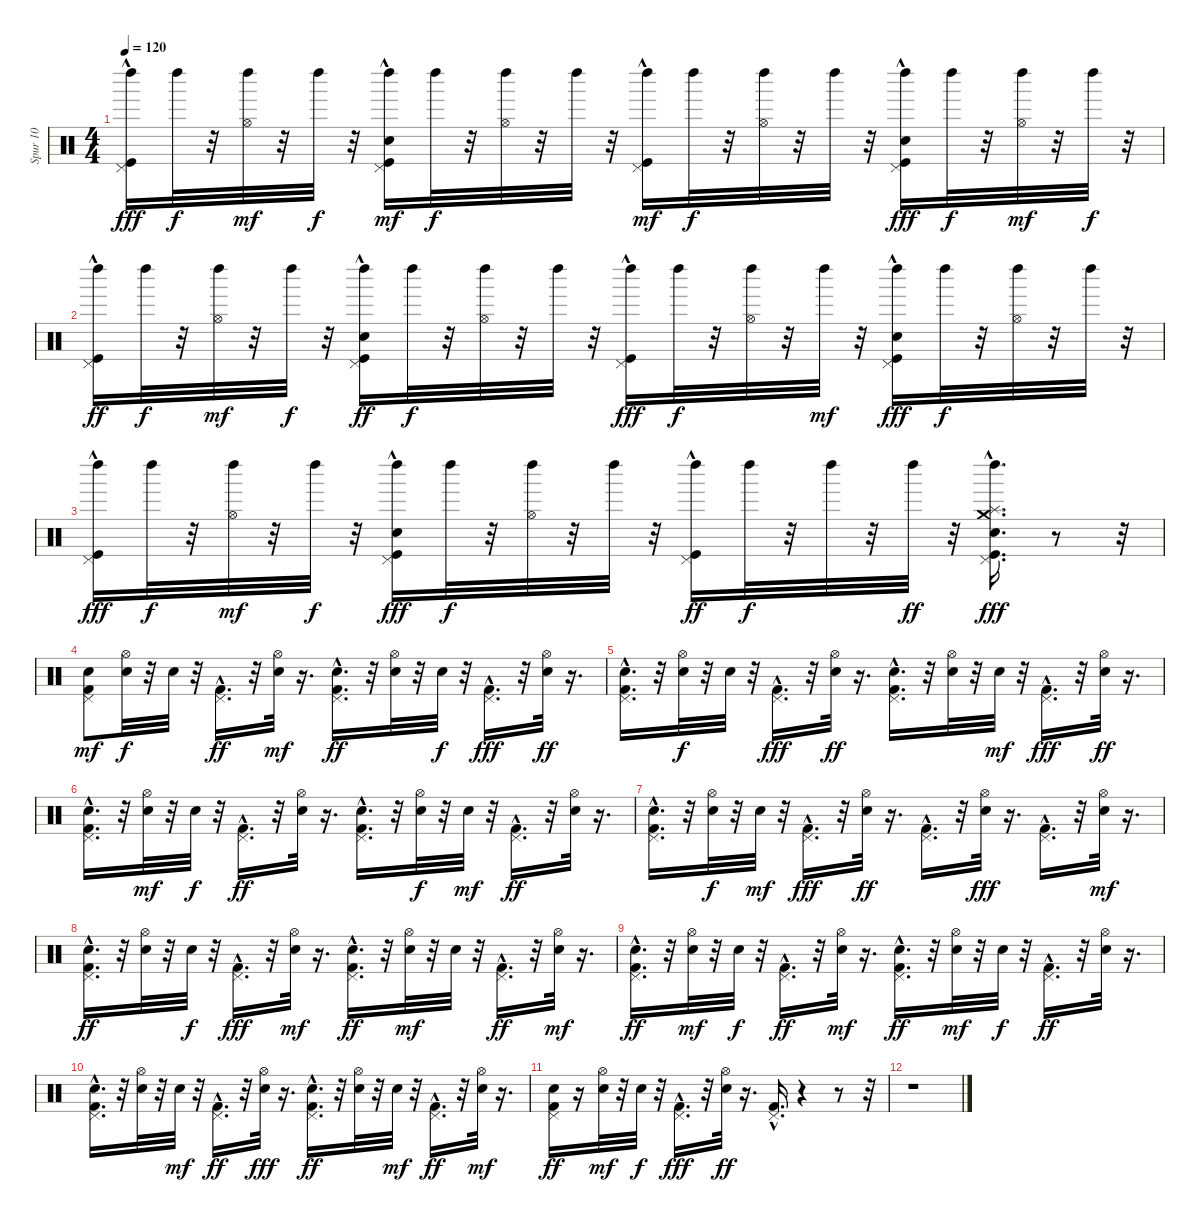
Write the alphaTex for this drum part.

\track ("Spur 10" "Spur 10") {instrument percussion}
\staff {score}
\articulation defaults
\ts (4 4)
\tempo 120
\clef neutral
\ks c
("Kick (hit)"{hac} "Pedal Hi-Hat (hit)"{hac} "Left Maraca (hit)").16{dy fff} "Left Maraca (hit)".32{dy f} r.32 ("Hi-Hat (open)" "Left Maraca (hit)").32{dy mf} r.32 "Left Maraca (hit)".32{dy f} r.32 ("Snare (hit) 2" "Kick (hit)"{hac} "Pedal Hi-Hat (hit)"{hac} "Left Maraca (hit)").16{dy mf} "Left Maraca (hit)".32{dy f} r.32 ("Hi-Hat (open)" "Left Maraca (hit)").32 r.32 "Left Maraca (hit)".32 r.32 ("Kick (hit)"{hac} "Pedal Hi-Hat (hit)"{hac} "Left Maraca (hit)").16{dy mf} "Left Maraca (hit)".32{dy f} r.32 ("Hi-Hat (open)" "Left Maraca (hit)").32 r.32 "Left Maraca (hit)".32 r.32 ("Kick (hit)"{hac} "Snare (hit) 2" "Pedal Hi-Hat (hit)" "Left Maraca (hit)").16{dy fff} "Left Maraca (hit)".32{dy f} r.32 ("Hi-Hat (open)" "Left Maraca (hit)").32{dy mf} r.32 "Left Maraca (hit)".32{dy f} r.32 |
("Kick (hit)"{hac} "Pedal Hi-Hat (hit)"{hac} "Left Maraca (hit)").16{dy ff} "Left Maraca (hit)".32{dy f} r.32 ("Hi-Hat (open)" "Left Maraca (hit)").32{dy mf} r.32 "Left Maraca (hit)".32{dy f} r.32 ("Kick (hit)"{hac} "Snare (hit) 2" "Pedal Hi-Hat (hit)"{hac} "Left Maraca (hit)").16{dy ff} "Left Maraca (hit)".32{dy f} r.32 ("Hi-Hat (open)" "Left Maraca (hit)").32 r.32 "Left Maraca (hit)".32 r.32 ("Kick (hit)"{hac} "Pedal Hi-Hat (hit)"{hac} "Left Maraca (hit)").16{dy fff} "Left Maraca (hit)".32{dy f} r.32 ("Hi-Hat (open)" "Left Maraca (hit)").32 r.32 "Left Maraca (hit)".32{dy mf} r.32 ("Snare (hit) 2" "Kick (hit)"{hac} "Pedal Hi-Hat (hit)"{hac} "Left Maraca (hit)").16{dy fff} "Left Maraca (hit)".32{dy f} r.32 ("Hi-Hat (open)" "Left Maraca (hit)").32 r.32 "Left Maraca (hit)".32 r.32 |
("Kick (hit)" "Pedal Hi-Hat (hit)"{hac} "Left Maraca (hit)").16{dy fff} "Left Maraca (hit)".32{dy f} r.32 ("Hi-Hat (open)" "Left Maraca (hit)").32{dy mf} r.32 "Left Maraca (hit)".32{dy f} r.32 ("Snare (hit) 2" "Kick (hit)"{hac} "Pedal Hi-Hat (hit)"{hac} "Left Maraca (hit)").16{dy fff} "Left Maraca (hit)".32{dy f} r.32 ("Hi-Hat (open)" "Left Maraca (hit)").32 r.32 "Left Maraca (hit)".32 r.32 ("Kick (hit)" "Pedal Hi-Hat (hit)"{hac} "Left Maraca (hit)").16{dy ff} "Left Maraca (hit)".32{dy f} r.32 "Left Maraca (hit)".32 r.32 "Left Maraca (hit)".32{dy ff} r.32 ("Kick (hit)"{hac} "Snare (hit) 2" "Pedal Hi-Hat (hit)"{hac} "Left Maraca (hit)" "Splash (hit)" "Crash medium (hit)").16{d dy fff} r.8 r.32 |
("Kick (hit) 2" "Electric Snare (hit)" "Pedal Hi-Hat (hit)").8{dy mf} ("Electric Snare (hit)" "Hi-Hat (open)").32{dy f} r.32 "Electric Snare (hit)".32 r.32 ("Kick (hit) 2"{hac} "Pedal Hi-Hat (hit)"{hac}).16{d dy ff} r.32 ("Electric Snare (hit)" "Hi-Hat (open)").32{dy mf} r.16{d} ("Kick (hit) 2" "Electric Snare (hit)" "Pedal Hi-Hat (hit)"{hac}).16{d dy ff} r.32 ("Electric Snare (hit)" "Hi-Hat (open)").32 r.32 "Electric Snare (hit)".32{dy f} r.32 ("Kick (hit) 2"{hac} "Pedal Hi-Hat (hit)"{hac}).16{d dy fff} r.32 ("Electric Snare (hit)" "Hi-Hat (open)").32{dy ff} r.16{d} |
("Kick (hit) 2" "Electric Snare (hit)" "Pedal Hi-Hat (hit)"{hac}).16{d} r.32 ("Electric Snare (hit)" "Hi-Hat (open)").32{dy f} r.32 "Electric Snare (hit)".32 r.32 ("Kick (hit) 2"{hac} "Pedal Hi-Hat (hit)"{hac}).16{d dy fff} r.32 ("Electric Snare (hit)" "Hi-Hat (open)").32{dy ff} r.16{d} ("Electric Snare (hit)" "Kick (hit) 2" "Pedal Hi-Hat (hit)"{hac}).16{d} r.32 ("Electric Snare (hit)" "Hi-Hat (open)").32 r.32 "Electric Snare (hit)".32{dy mf} r.32 ("Kick (hit) 2"{hac} "Pedal Hi-Hat (hit)"{hac}).16{d dy fff} r.32 ("Electric Snare (hit)" "Hi-Hat (open)").32{dy ff} r.16{d} |
("Kick (hit) 2" "Electric Snare (hit)" "Pedal Hi-Hat (hit)"{hac}).16{d} r.32 ("Electric Snare (hit)" "Hi-Hat (open)").32{dy mf} r.32 "Electric Snare (hit)".32{dy f} r.32 ("Kick (hit) 2"{hac} "Pedal Hi-Hat (hit)"{hac}).16{d dy ff} r.32 ("Electric Snare (hit)" "Hi-Hat (open)").32 r.16{d} ("Kick (hit) 2" "Electric Snare (hit)" "Pedal Hi-Hat (hit)"{hac}).16{d} r.32 ("Electric Snare (hit)" "Hi-Hat (open)").32{dy f} r.32 "Electric Snare (hit)".32{dy mf} r.32 ("Kick (hit) 2"{hac} "Pedal Hi-Hat (hit)"{hac}).16{d dy ff} r.32 ("Electric Snare (hit)" "Hi-Hat (open)").32 r.16{d} |
("Kick (hit) 2" "Electric Snare (hit)" "Pedal Hi-Hat (hit)"{hac}).16{d} r.32 ("Electric Snare (hit)" "Hi-Hat (open)").32{dy f} r.32 "Electric Snare (hit)".32{dy mf} r.32 ("Kick (hit) 2"{hac} "Pedal Hi-Hat (hit)"{hac}).16{d dy fff} r.32 ("Electric Snare (hit)" "Hi-Hat (open)").32{dy ff} r.16{d} ("Kick (hit) 2" "Pedal Hi-Hat (hit)"{hac}).16{d} r.32 ("Electric Snare (hit)" "Hi-Hat (open)").32{dy fff} r.16{d} ("Kick (hit) 2" "Pedal Hi-Hat (hit)"{hac}).16{d} r.32 ("Electric Snare (hit)" "Hi-Hat (open)").32{dy mf} r.16{d} |
("Kick (hit) 2" "Electric Snare (hit)" "Pedal Hi-Hat (hit)"{hac}).16{d dy ff} r.32 ("Electric Snare (hit)" "Hi-Hat (open)").32 r.32 "Electric Snare (hit)".32{dy f} r.32 ("Kick (hit) 2"{hac} "Pedal Hi-Hat (hit)").16{d dy fff} r.32 ("Electric Snare (hit)" "Hi-Hat (open)").32{dy mf} r.16{d} ("Kick (hit) 2" "Electric Snare (hit)" "Pedal Hi-Hat (hit)"{hac}).16{d dy ff} r.32 ("Electric Snare (hit)" "Hi-Hat (open)").32{dy mf} r.32 "Electric Snare (hit)".32 r.32 ("Kick (hit) 2"{hac} "Pedal Hi-Hat (hit)").16{d dy ff} r.32 ("Electric Snare (hit)" "Hi-Hat (open)").32{dy mf} r.16{d} |
("Kick (hit) 2" "Electric Snare (hit)" "Pedal Hi-Hat (hit)"{hac}).16{d dy ff} r.32 ("Electric Snare (hit)" "Hi-Hat (open)").32{dy mf} r.32 "Electric Snare (hit)".32{dy f} r.32 ("Kick (hit) 2"{hac} "Pedal Hi-Hat (hit)").16{d dy ff} r.32 ("Electric Snare (hit)" "Hi-Hat (open)").32{dy mf} r.16{d} ("Electric Snare (hit)" "Kick (hit) 2" "Pedal Hi-Hat (hit)"{hac}).16{d dy ff} r.32 ("Electric Snare (hit)" "Hi-Hat (open)").32{dy mf} r.32 "Electric Snare (hit)".32{dy f} r.32 ("Kick (hit) 2"{hac} "Pedal Hi-Hat (hit)"{hac}).16{d dy ff} r.32 ("Electric Snare (hit)" "Hi-Hat (open)").32 r.16{d} |
("Kick (hit) 2" "Electric Snare (hit)" "Pedal Hi-Hat (hit)"{hac}).16{d} r.32 ("Electric Snare (hit)" "Hi-Hat (open)").32 r.32 "Electric Snare (hit)".32{dy mf} r.32 ("Kick (hit) 2"{hac} "Pedal Hi-Hat (hit)").16{d dy ff} r.32 ("Electric Snare (hit)" "Hi-Hat (open)").32{dy fff} r.16{d} ("Electric Snare (hit)" "Kick (hit) 2" "Pedal Hi-Hat (hit)"{hac}).16{d dy ff} r.32 ("Electric Snare (hit)" "Hi-Hat (open)").32 r.32 "Electric Snare (hit)".32{dy mf} r.32 ("Kick (hit) 2"{hac} "Pedal Hi-Hat (hit)").16{d dy ff} r.32 ("Electric Snare (hit)" "Hi-Hat (open)").32{dy mf} r.16{d} |
("Electric Snare (hit)" "Kick (hit) 2" "Pedal Hi-Hat (hit)").16{dy ff} r.16 ("Electric Snare (hit)" "Hi-Hat (open)").32{dy mf} r.32 "Electric Snare (hit)".32{dy f} r.32 ("Kick (hit) 2"{hac} "Pedal Hi-Hat (hit)"{hac}).16{d dy fff} r.32 ("Electric Snare (hit)" "Hi-Hat (open)").32{dy ff} r.16{d} ("Kick (hit) 2"{hac} "Pedal Hi-Hat (hit)"{hac}).16{d} r.4 r.8 r.32 |
r.1
